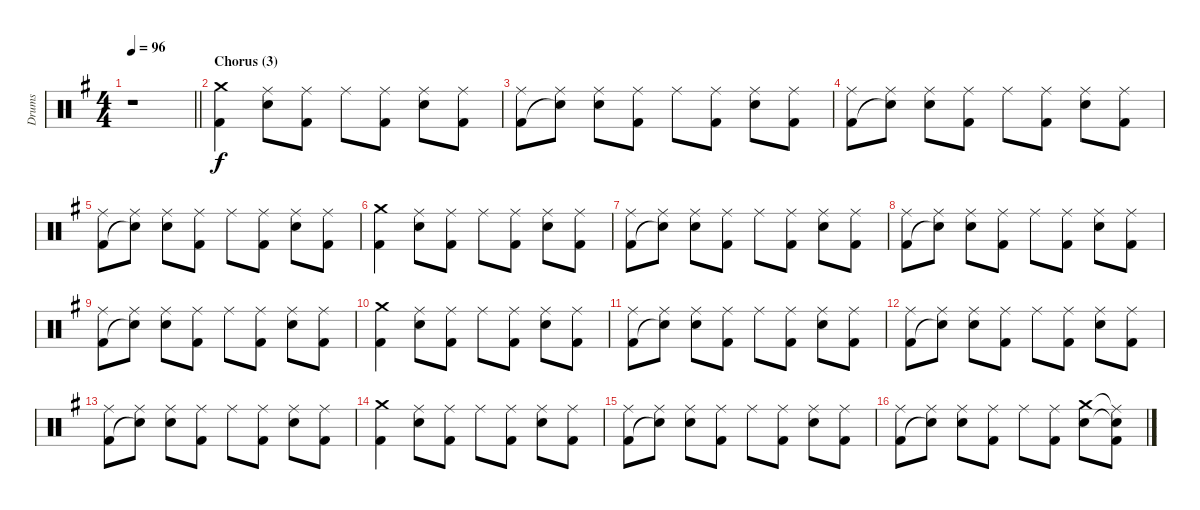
\track ("Drums" "Drums") {instrument percussion}
\staff {score}
\articulation defaults
\ts (4 4)
\tempo 96
\clef neutral
\barLineRight lightlight
\ks eminor
r.1{dy f} |
\section ("" "Chorus (3)")
("Crash medium (hit)" "Kick (hit) 2").4 ("Ride (middle)" "Electric Snare (hit)").8 ("Ride (middle)" "Kick (hit) 2").8 "Ride (middle)".8 ("Ride (middle)" "Kick (hit) 2").8 ("Ride (middle)" "Electric Snare (hit)").8 ("Ride (middle)" "Kick (hit) 2").8 |
("Ride (middle)" "Kick (hit) 2").8 ("Ride (middle)" "Snare (hit)"{t}).8 ("Ride (middle)" "Electric Snare (hit)").8 ("Ride (middle)" "Kick (hit) 2").8 "Ride (middle)".8 ("Ride (middle)" "Kick (hit) 2").8 ("Ride (middle)" "Electric Snare (hit)").8 ("Ride (middle)" "Kick (hit) 2").8 |
("Ride (middle)" "Kick (hit) 2").8 ("Ride (middle)" "Snare (hit)"{t}).8 ("Ride (middle)" "Electric Snare (hit)").8 ("Ride (middle)" "Kick (hit) 2").8 "Ride (middle)".8 ("Ride (middle)" "Kick (hit) 2").8 ("Ride (middle)" "Electric Snare (hit)").8 ("Ride (middle)" "Kick (hit) 2").8 |
("Ride (middle)" "Kick (hit) 2").8 ("Ride (middle)" "Snare (hit)"{t}).8 ("Ride (middle)" "Electric Snare (hit)").8 ("Ride (middle)" "Kick (hit) 2").8 "Ride (middle)".8 ("Ride (middle)" "Kick (hit) 2").8 ("Ride (middle)" "Electric Snare (hit)").8 ("Ride (middle)" "Kick (hit) 2").8 |
("Crash medium (hit)" "Kick (hit) 2").4 ("Ride (middle)" "Electric Snare (hit)").8 ("Ride (middle)" "Kick (hit) 2").8 "Ride (middle)".8 ("Ride (middle)" "Kick (hit) 2").8 ("Ride (middle)" "Electric Snare (hit)").8 ("Ride (middle)" "Kick (hit) 2").8 |
("Ride (middle)" "Kick (hit) 2").8 ("Ride (middle)" "Snare (hit)"{t}).8 ("Ride (middle)" "Electric Snare (hit)").8 ("Ride (middle)" "Kick (hit) 2").8 "Ride (middle)".8 ("Ride (middle)" "Kick (hit) 2").8 ("Ride (middle)" "Electric Snare (hit)").8 ("Ride (middle)" "Kick (hit) 2").8 |
("Ride (middle)" "Kick (hit) 2").8 ("Ride (middle)" "Snare (hit)"{t}).8 ("Ride (middle)" "Electric Snare (hit)").8 ("Ride (middle)" "Kick (hit) 2").8 "Ride (middle)".8 ("Ride (middle)" "Kick (hit) 2").8 ("Ride (middle)" "Electric Snare (hit)").8 ("Ride (middle)" "Kick (hit) 2").8 |
("Ride (middle)" "Kick (hit) 2").8 ("Ride (middle)" "Snare (hit)"{t}).8 ("Ride (middle)" "Electric Snare (hit)").8 ("Ride (middle)" "Kick (hit) 2").8 "Ride (middle)".8 ("Ride (middle)" "Kick (hit) 2").8 ("Ride (middle)" "Electric Snare (hit)").8 ("Ride (middle)" "Kick (hit) 2").8 |
("Crash medium (hit)" "Kick (hit) 2").4 ("Ride (middle)" "Electric Snare (hit)").8 ("Ride (middle)" "Kick (hit) 2").8 "Ride (middle)".8 ("Ride (middle)" "Kick (hit) 2").8 ("Ride (middle)" "Electric Snare (hit)").8 ("Ride (middle)" "Kick (hit) 2").8 |
("Ride (middle)" "Kick (hit) 2").8 ("Ride (middle)" "Snare (hit)"{t}).8 ("Ride (middle)" "Electric Snare (hit)").8 ("Ride (middle)" "Kick (hit) 2").8 "Ride (middle)".8 ("Ride (middle)" "Kick (hit) 2").8 ("Ride (middle)" "Electric Snare (hit)").8 ("Ride (middle)" "Kick (hit) 2").8 |
("Ride (middle)" "Kick (hit) 2").8 ("Ride (middle)" "Snare (hit)"{t}).8 ("Ride (middle)" "Electric Snare (hit)").8 ("Ride (middle)" "Kick (hit) 2").8 "Ride (middle)".8 ("Ride (middle)" "Kick (hit) 2").8 ("Ride (middle)" "Electric Snare (hit)").8 ("Ride (middle)" "Kick (hit) 2").8 |
("Ride (middle)" "Kick (hit) 2").8 ("Ride (middle)" "Snare (hit)"{t}).8 ("Ride (middle)" "Electric Snare (hit)").8 ("Ride (middle)" "Kick (hit) 2").8 "Ride (middle)".8 ("Ride (middle)" "Kick (hit) 2").8 ("Ride (middle)" "Electric Snare (hit)").8 ("Ride (middle)" "Kick (hit) 2").8 |
("Crash medium (hit)" "Kick (hit) 2").4 ("Ride (middle)" "Electric Snare (hit)").8 ("Ride (middle)" "Kick (hit) 2").8 "Ride (middle)".8 ("Ride (middle)" "Kick (hit) 2").8 ("Ride (middle)" "Electric Snare (hit)").8 ("Ride (middle)" "Kick (hit) 2").8 |
("Ride (middle)" "Kick (hit) 2").8 ("Ride (middle)" "Snare (hit)"{t}).8 ("Ride (middle)" "Electric Snare (hit)").8 ("Ride (middle)" "Kick (hit) 2").8 "Ride (middle)".8 ("Ride (middle)" "Kick (hit) 2").8 ("Ride (middle)" "Electric Snare (hit)").8 ("Ride (middle)" "Kick (hit) 2").8 |
("Ride (middle)" "Kick (hit) 2").8 ("Ride (middle)" "Snare (hit)"{t}).8 ("Ride (middle)" "Electric Snare (hit)").8 ("Ride (middle)" "Kick (hit) 2").8 "Ride (middle)".8 ("Ride (middle)" "Kick (hit) 2").8 ("Crash medium (hit)" "Electric Snare (hit)").8 ("Ride (middle)"{t} "Snare (hit)"{t} "Kick (hit) 2").8
